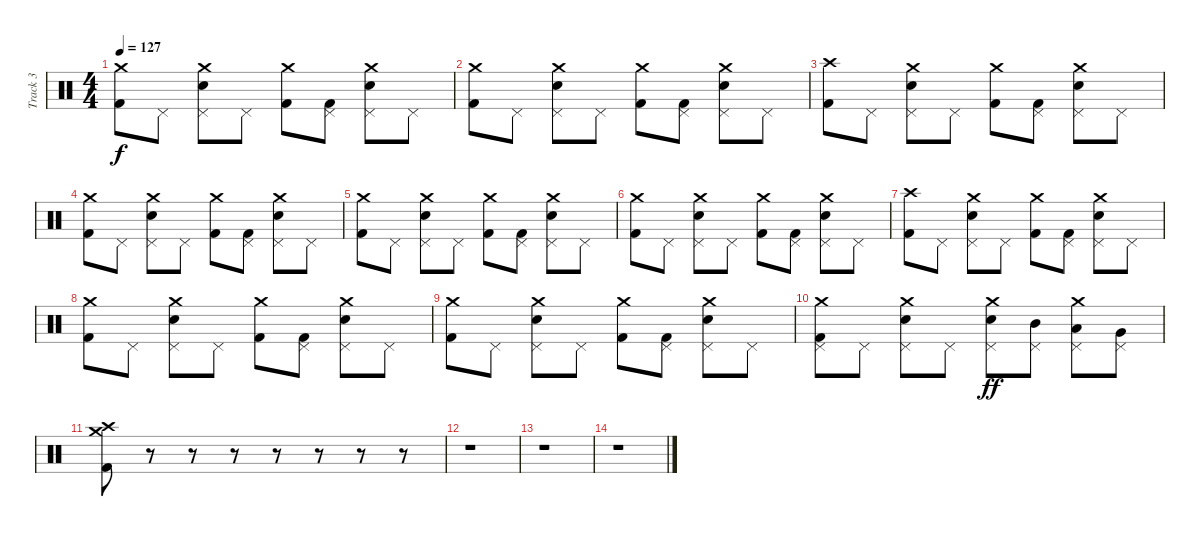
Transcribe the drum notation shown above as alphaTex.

\track ("Track 3" "Track 3") {instrument percussion}
\staff {score}
\articulation defaults
\ts (4 4)
\tempo 127
\clef neutral
\ks c
("Crash medium (hit)" "Kick (hit) 2").8{dy f} "Pedal Hi-Hat (hit)".8 ("Crash medium (hit)" "Pedal Hi-Hat (hit)" "Snare (hit) 2").8 "Pedal Hi-Hat (hit)".8 ("Crash medium (hit)" "Kick (hit) 2").8 ("Pedal Hi-Hat (hit)" "Kick (hit) 2").8 ("Crash medium (hit)" "Pedal Hi-Hat (hit)" "Snare (hit) 2").8 "Pedal Hi-Hat (hit)".8 |
("Crash medium (hit)" "Kick (hit) 2").8 "Pedal Hi-Hat (hit)".8 ("Crash medium (hit)" "Pedal Hi-Hat (hit)" "Snare (hit) 2").8 "Pedal Hi-Hat (hit)".8 ("Crash medium (hit)" "Kick (hit) 2").8 ("Pedal Hi-Hat (hit)" "Kick (hit) 2").8 ("Crash medium (hit)" "Pedal Hi-Hat (hit)" "Snare (hit) 2").8 "Pedal Hi-Hat (hit)".8 |
("Crash high (hit)" "Kick (hit) 2").8 "Pedal Hi-Hat (hit)".8 ("Crash medium (hit)" "Pedal Hi-Hat (hit)" "Snare (hit) 2").8 "Pedal Hi-Hat (hit)".8 ("Crash medium (hit)" "Kick (hit) 2").8 ("Pedal Hi-Hat (hit)" "Kick (hit) 2").8 ("Crash medium (hit)" "Pedal Hi-Hat (hit)" "Snare (hit) 2").8 "Pedal Hi-Hat (hit)".8 |
("Crash medium (hit)" "Kick (hit) 2").8 "Pedal Hi-Hat (hit)".8 ("Crash medium (hit)" "Pedal Hi-Hat (hit)" "Snare (hit) 2").8 "Pedal Hi-Hat (hit)".8 ("Crash medium (hit)" "Kick (hit) 2").8 ("Pedal Hi-Hat (hit)" "Kick (hit) 2").8 ("Crash medium (hit)" "Pedal Hi-Hat (hit)" "Snare (hit) 2").8 "Pedal Hi-Hat (hit)".8 |
("Crash medium (hit)" "Kick (hit) 2").8 "Pedal Hi-Hat (hit)".8 ("Crash medium (hit)" "Pedal Hi-Hat (hit)" "Snare (hit) 2").8 "Pedal Hi-Hat (hit)".8 ("Crash medium (hit)" "Kick (hit) 2").8 ("Pedal Hi-Hat (hit)" "Kick (hit) 2").8 ("Crash medium (hit)" "Pedal Hi-Hat (hit)" "Snare (hit) 2").8 "Pedal Hi-Hat (hit)".8 |
("Crash medium (hit)" "Kick (hit) 2").8 "Pedal Hi-Hat (hit)".8 ("Crash medium (hit)" "Pedal Hi-Hat (hit)" "Snare (hit) 2").8 "Pedal Hi-Hat (hit)".8 ("Crash medium (hit)" "Kick (hit) 2").8 ("Pedal Hi-Hat (hit)" "Kick (hit) 2").8 ("Crash medium (hit)" "Pedal Hi-Hat (hit)" "Snare (hit) 2").8 "Pedal Hi-Hat (hit)".8 |
("Crash high (hit)" "Kick (hit) 2").8 "Pedal Hi-Hat (hit)".8 ("Crash medium (hit)" "Pedal Hi-Hat (hit)" "Snare (hit) 2").8 "Pedal Hi-Hat (hit)".8 ("Crash medium (hit)" "Kick (hit) 2").8 ("Pedal Hi-Hat (hit)" "Kick (hit) 2").8 ("Crash medium (hit)" "Pedal Hi-Hat (hit)" "Snare (hit) 2").8 "Pedal Hi-Hat (hit)".8 |
("Crash medium (hit)" "Kick (hit) 2").8 "Pedal Hi-Hat (hit)".8 ("Crash medium (hit)" "Pedal Hi-Hat (hit)" "Snare (hit) 2").8 "Pedal Hi-Hat (hit)".8 ("Crash medium (hit)" "Kick (hit) 2").8 ("Pedal Hi-Hat (hit)" "Kick (hit) 2").8 ("Crash medium (hit)" "Pedal Hi-Hat (hit)" "Snare (hit) 2").8 "Pedal Hi-Hat (hit)".8 |
("Crash medium (hit)" "Kick (hit) 2").8 "Pedal Hi-Hat (hit)".8 ("Crash medium (hit)" "Pedal Hi-Hat (hit)" "Snare (hit) 2").8 "Pedal Hi-Hat (hit)".8 ("Crash medium (hit)" "Kick (hit) 2").8 ("Pedal Hi-Hat (hit)" "Kick (hit) 2").8 ("Crash medium (hit)" "Pedal Hi-Hat (hit)" "Snare (hit) 2").8 "Pedal Hi-Hat (hit)".8 |
("Crash medium (hit)" "Pedal Hi-Hat (hit)" "Kick (hit) 2").8 "Pedal Hi-Hat (hit)".8 ("Crash medium (hit)" "Pedal Hi-Hat (hit)" "Snare (hit) 2").8 "Pedal Hi-Hat (hit)".8 ("Crash medium (hit)" "Pedal Hi-Hat (hit)" "Snare (hit) 2").8{dy ff} ("Pedal Hi-Hat (hit)" "Mid Tom (hit)").8 ("Crash medium (hit)" "Pedal Hi-Hat (hit)" "Low Tom (hit)").8 ("Pedal Hi-Hat (hit)" "Very Low Tom (hit)").8 |
("Crash medium (hit)" "Crash high (hit)" "Kick (hit) 2").8 r.8 r.8 r.8 r.8 r.8 r.8 r.8 |
r.1 |
r.1 |
r.1
